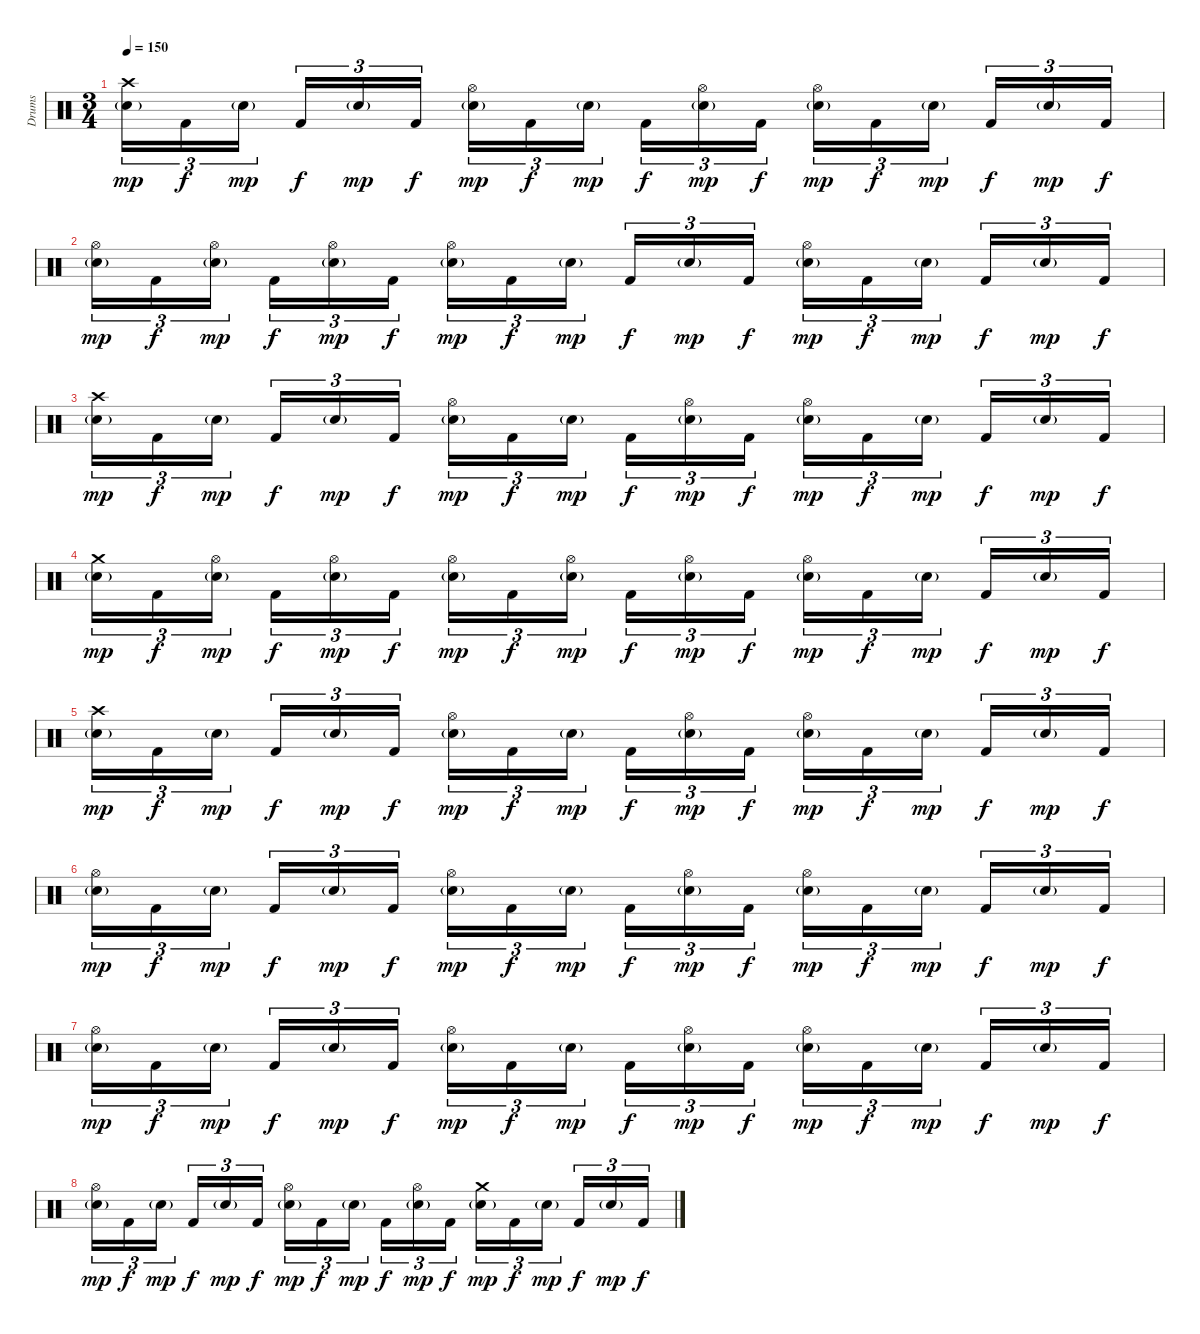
\track ("Drums" "Drums") {instrument percussion}
\staff {score}
\articulation defaults
\ts (3 4)
\tempo 150
\clef neutral
\ks c
("Electric Snare (hit)"{g} "Crash high (hit)").16{tu (3 2) dy mp} "Kick (hit) 2".16{tu (3 2) dy f} "Electric Snare (hit)"{g}.16{tu (3 2) dy mp beam splitsecondary} "Kick (hit) 2".16{tu (3 2) dy f} "Electric Snare (hit)"{g}.16{tu (3 2) dy mp} "Kick (hit) 2".16{tu (3 2) dy f} ("Electric Snare (hit)"{g} "Hi-Hat (open)").16{tu (3 2) dy mp} "Kick (hit) 2".16{tu (3 2) dy f} "Electric Snare (hit)"{g}.16{tu (3 2) dy mp beam splitsecondary} "Kick (hit) 2".16{tu (3 2) dy f} ("Electric Snare (hit)"{g} "Hi-Hat (open)").16{tu (3 2) dy mp} "Kick (hit) 2".16{tu (3 2) dy f} ("Electric Snare (hit)"{g} "Hi-Hat (open)").16{tu (3 2) dy mp} "Kick (hit) 2".16{tu (3 2) dy f} "Electric Snare (hit)"{g}.16{tu (3 2) dy mp beam splitsecondary} "Kick (hit) 2".16{tu (3 2) dy f} "Electric Snare (hit)"{g}.16{tu (3 2) dy mp} "Kick (hit) 2".16{tu (3 2) dy f} |
("Electric Snare (hit)"{g} "Hi-Hat (open)").16{tu (3 2) dy mp} "Kick (hit) 2".16{tu (3 2) dy f} ("Electric Snare (hit)"{g} "Hi-Hat (open)").16{tu (3 2) dy mp beam splitsecondary} "Kick (hit) 2".16{tu (3 2) dy f} ("Electric Snare (hit)"{g} "Hi-Hat (open)").16{tu (3 2) dy mp} "Kick (hit) 2".16{tu (3 2) dy f} ("Electric Snare (hit)"{g} "Hi-Hat (open)").16{tu (3 2) dy mp} "Kick (hit) 2".16{tu (3 2) dy f} "Electric Snare (hit)"{g}.16{tu (3 2) dy mp beam splitsecondary} "Kick (hit) 2".16{tu (3 2) dy f} "Electric Snare (hit)"{g}.16{tu (3 2) dy mp} "Kick (hit) 2".16{tu (3 2) dy f} ("Electric Snare (hit)"{g} "Hi-Hat (open)").16{tu (3 2) dy mp} "Kick (hit) 2".16{tu (3 2) dy f} "Electric Snare (hit)"{g}.16{tu (3 2) dy mp beam splitsecondary} "Kick (hit) 2".16{tu (3 2) dy f} "Electric Snare (hit)"{g}.16{tu (3 2) dy mp} "Kick (hit) 2".16{tu (3 2) dy f} |
("Electric Snare (hit)"{g} "Crash high (hit)").16{tu (3 2) dy mp} "Kick (hit) 2".16{tu (3 2) dy f} "Electric Snare (hit)"{g}.16{tu (3 2) dy mp beam splitsecondary} "Kick (hit) 2".16{tu (3 2) dy f} "Electric Snare (hit)"{g}.16{tu (3 2) dy mp} "Kick (hit) 2".16{tu (3 2) dy f} ("Electric Snare (hit)"{g} "Hi-Hat (open)").16{tu (3 2) dy mp} "Kick (hit) 2".16{tu (3 2) dy f} "Electric Snare (hit)"{g}.16{tu (3 2) dy mp beam splitsecondary} "Kick (hit) 2".16{tu (3 2) dy f} ("Electric Snare (hit)"{g} "Hi-Hat (open)").16{tu (3 2) dy mp} "Kick (hit) 2".16{tu (3 2) dy f} ("Electric Snare (hit)"{g} "Hi-Hat (open)").16{tu (3 2) dy mp} "Kick (hit) 2".16{tu (3 2) dy f} "Electric Snare (hit)"{g}.16{tu (3 2) dy mp beam splitsecondary} "Kick (hit) 2".16{tu (3 2) dy f} "Electric Snare (hit)"{g}.16{tu (3 2) dy mp} "Kick (hit) 2".16{tu (3 2) dy f} |
("Electric Snare (hit)"{g} "Crash medium (hit)").16{tu (3 2) dy mp} "Kick (hit) 2".16{tu (3 2) dy f} ("Electric Snare (hit)"{g} "Hi-Hat (open)").16{tu (3 2) dy mp beam splitsecondary} "Kick (hit) 2".16{tu (3 2) dy f} ("Electric Snare (hit)"{g} "Hi-Hat (open)").16{tu (3 2) dy mp} "Kick (hit) 2".16{tu (3 2) dy f} ("Electric Snare (hit)"{g} "Hi-Hat (open)").16{tu (3 2) dy mp} "Kick (hit) 2".16{tu (3 2) dy f} ("Electric Snare (hit)"{g} "Hi-Hat (open)").16{tu (3 2) dy mp beam splitsecondary} "Kick (hit) 2".16{tu (3 2) dy f} ("Electric Snare (hit)"{g} "Hi-Hat (open)").16{tu (3 2) dy mp} "Kick (hit) 2".16{tu (3 2) dy f} ("Electric Snare (hit)"{g} "Hi-Hat (open)").16{tu (3 2) dy mp} "Kick (hit) 2".16{tu (3 2) dy f} "Electric Snare (hit)"{g}.16{tu (3 2) dy mp beam splitsecondary} "Kick (hit) 2".16{tu (3 2) dy f} "Electric Snare (hit)"{g}.16{tu (3 2) dy mp} "Kick (hit) 2".16{tu (3 2) dy f} |
("Electric Snare (hit)"{g} "Crash high (hit)").16{tu (3 2) dy mp} "Kick (hit) 2".16{tu (3 2) dy f} "Electric Snare (hit)"{g}.16{tu (3 2) dy mp beam splitsecondary} "Kick (hit) 2".16{tu (3 2) dy f} "Electric Snare (hit)"{g}.16{tu (3 2) dy mp} "Kick (hit) 2".16{tu (3 2) dy f} ("Electric Snare (hit)"{g} "Hi-Hat (open)").16{tu (3 2) dy mp} "Kick (hit) 2".16{tu (3 2) dy f} "Electric Snare (hit)"{g}.16{tu (3 2) dy mp beam splitsecondary} "Kick (hit) 2".16{tu (3 2) dy f} ("Electric Snare (hit)"{g} "Hi-Hat (open)").16{tu (3 2) dy mp} "Kick (hit) 2".16{tu (3 2) dy f} ("Electric Snare (hit)"{g} "Hi-Hat (open)").16{tu (3 2) dy mp} "Kick (hit) 2".16{tu (3 2) dy f} "Electric Snare (hit)"{g}.16{tu (3 2) dy mp beam splitsecondary} "Kick (hit) 2".16{tu (3 2) dy f} "Electric Snare (hit)"{g}.16{tu (3 2) dy mp} "Kick (hit) 2".16{tu (3 2) dy f} |
("Electric Snare (hit)"{g} "Hi-Hat (open)").16{tu (3 2) dy mp} "Kick (hit) 2".16{tu (3 2) dy f} "Electric Snare (hit)"{g}.16{tu (3 2) dy mp beam splitsecondary} "Kick (hit) 2".16{tu (3 2) dy f} "Electric Snare (hit)"{g}.16{tu (3 2) dy mp} "Kick (hit) 2".16{tu (3 2) dy f} ("Electric Snare (hit)"{g} "Hi-Hat (open)").16{tu (3 2) dy mp} "Kick (hit) 2".16{tu (3 2) dy f} "Electric Snare (hit)"{g}.16{tu (3 2) dy mp beam splitsecondary} "Kick (hit) 2".16{tu (3 2) dy f} ("Electric Snare (hit)"{g} "Hi-Hat (open)").16{tu (3 2) dy mp} "Kick (hit) 2".16{tu (3 2) dy f} ("Electric Snare (hit)"{g} "Hi-Hat (open)").16{tu (3 2) dy mp} "Kick (hit) 2".16{tu (3 2) dy f} "Electric Snare (hit)"{g}.16{tu (3 2) dy mp beam splitsecondary} "Kick (hit) 2".16{tu (3 2) dy f} "Electric Snare (hit)"{g}.16{tu (3 2) dy mp} "Kick (hit) 2".16{tu (3 2) dy f} |
("Electric Snare (hit)"{g} "Hi-Hat (open)").16{tu (3 2) dy mp} "Kick (hit) 2".16{tu (3 2) dy f} "Electric Snare (hit)"{g}.16{tu (3 2) dy mp beam splitsecondary} "Kick (hit) 2".16{tu (3 2) dy f} "Electric Snare (hit)"{g}.16{tu (3 2) dy mp} "Kick (hit) 2".16{tu (3 2) dy f} ("Electric Snare (hit)"{g} "Hi-Hat (open)").16{tu (3 2) dy mp} "Kick (hit) 2".16{tu (3 2) dy f} "Electric Snare (hit)"{g}.16{tu (3 2) dy mp beam splitsecondary} "Kick (hit) 2".16{tu (3 2) dy f} ("Electric Snare (hit)"{g} "Hi-Hat (open)").16{tu (3 2) dy mp} "Kick (hit) 2".16{tu (3 2) dy f} ("Electric Snare (hit)"{g} "Hi-Hat (open)").16{tu (3 2) dy mp} "Kick (hit) 2".16{tu (3 2) dy f} "Electric Snare (hit)"{g}.16{tu (3 2) dy mp beam splitsecondary} "Kick (hit) 2".16{tu (3 2) dy f} "Electric Snare (hit)"{g}.16{tu (3 2) dy mp} "Kick (hit) 2".16{tu (3 2) dy f} |
("Electric Snare (hit)"{g} "Hi-Hat (open)").16{tu (3 2) dy mp} "Kick (hit) 2".16{tu (3 2) dy f} "Electric Snare (hit)"{g}.16{tu (3 2) dy mp beam splitsecondary} "Kick (hit) 2".16{tu (3 2) dy f} "Electric Snare (hit)"{g}.16{tu (3 2) dy mp} "Kick (hit) 2".16{tu (3 2) dy f} ("Electric Snare (hit)"{g} "Hi-Hat (open)").16{tu (3 2) dy mp} "Kick (hit) 2".16{tu (3 2) dy f} "Electric Snare (hit)"{g}.16{tu (3 2) dy mp beam splitsecondary} "Kick (hit) 2".16{tu (3 2) dy f} ("Electric Snare (hit)"{g} "Hi-Hat (open)").16{tu (3 2) dy mp} "Kick (hit) 2".16{tu (3 2) dy f} ("Electric Snare (hit)"{g} "Crash medium (hit)").16{tu (3 2) dy mp} "Kick (hit) 2".16{tu (3 2) dy f} "Electric Snare (hit)"{g}.16{tu (3 2) dy mp beam splitsecondary} "Kick (hit) 2".16{tu (3 2) dy f} "Electric Snare (hit)"{g}.16{tu (3 2) dy mp} "Kick (hit) 2".16{tu (3 2) dy f}
